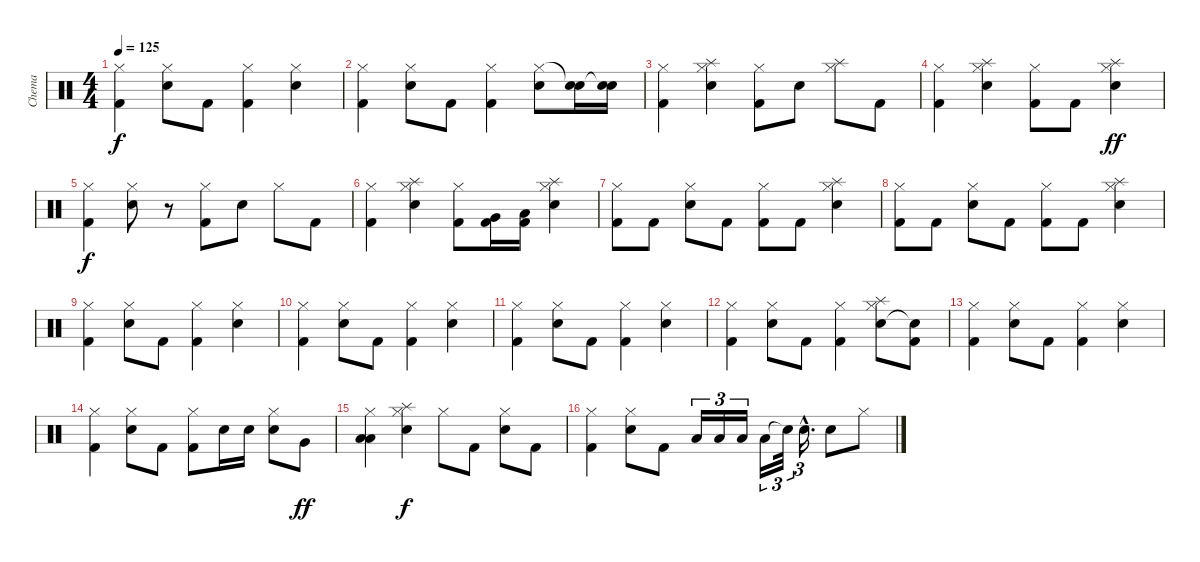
\track ("Chema" "Chema") {instrument percussion}
\staff {score}
\articulation defaults
\ts (4 4)
\tempo 125
\clef neutral
\ks c
("Hi-Hat (closed)" "Kick (hit) 2").4{dy f} ("Hi-Hat (closed)" "Snare (hit) 2").8 "Kick (hit) 2".8 ("Hi-Hat (closed)" "Kick (hit) 2").4 ("Hi-Hat (closed)" "Snare (hit) 2").4 |
("Hi-Hat (closed)" "Kick (hit) 2").4 ("Hi-Hat (closed)" "Snare (hit) 2").8 "Kick (hit) 2".8 ("Hi-Hat (closed)" "Kick (hit) 2").4 ("Hi-Hat (closed)" "Snare (hit) 2").8 ("Snare (hit)"{t} "Snare (hit) 2").16 ("Snare (hit)"{t} "Snare (hit) 2").16 |
("Hi-Hat (closed)" "Kick (hit) 2").4 ("Hi-Hat (closed)" "Snare (hit) 2" "Splash (hit)").4 ("Hi-Hat (closed)" "Kick (hit) 2").8 "Snare (hit) 2".8 ("Hi-Hat (closed)" "Splash (hit)").8 "Kick (hit) 2".8 |
("Hi-Hat (closed)" "Kick (hit) 2").4 ("Hi-Hat (closed)" "Snare (hit) 2" "Splash (hit)").4 ("Hi-Hat (closed)" "Kick (hit) 2").8 "Kick (hit) 2".8 ("Hi-Hat (closed)" "Snare (hit) 2" "Splash (hit)").4{dy ff} |
("Hi-Hat (closed)" "Kick (hit) 2").4{dy f} ("Hi-Hat (closed)" "Snare (hit) 2").8 r.8 ("Hi-Hat (closed)" "Kick (hit) 2").8 "Snare (hit) 2".8 "Hi-Hat (closed)".8 "Kick (hit) 2".8 |
("Hi-Hat (closed)" "Kick (hit) 2").4 ("Hi-Hat (closed)" "Snare (hit) 2" "Splash (hit)").4 ("Hi-Hat (closed)" "Kick (hit) 2").8 ("Kick (hit) 2" "Very Low Tom (hit)").16 ("Kick (hit) 2" "Low Tom (hit)").16 ("Hi-Hat (closed)" "Snare (hit) 2" "Splash (hit)").4 |
("Hi-Hat (closed)" "Kick (hit) 2").8 "Kick (hit) 2".8 ("Hi-Hat (closed)" "Snare (hit) 2").8 "Kick (hit) 2".8 ("Hi-Hat (closed)" "Kick (hit) 2").8 "Kick (hit) 2".8 ("Hi-Hat (closed)" "Snare (hit) 2" "Splash (hit)").4 |
("Hi-Hat (closed)" "Kick (hit) 2").8 "Kick (hit) 2".8 ("Hi-Hat (closed)" "Snare (hit) 2").8 "Kick (hit) 2".8 ("Hi-Hat (closed)" "Kick (hit) 2").8 "Kick (hit) 2".8 ("Hi-Hat (closed)" "Snare (hit) 2" "Splash (hit)").4 |
("Hi-Hat (closed)" "Kick (hit) 2").4 ("Hi-Hat (closed)" "Snare (hit) 2").8 "Kick (hit) 2".8 ("Hi-Hat (closed)" "Kick (hit) 2").4 ("Hi-Hat (closed)" "Snare (hit) 2").4 |
("Hi-Hat (closed)" "Kick (hit) 2").4 ("Hi-Hat (closed)" "Snare (hit) 2").8 "Kick (hit) 2".8 ("Hi-Hat (closed)" "Kick (hit) 2").4 ("Hi-Hat (closed)" "Snare (hit) 2").4 |
("Hi-Hat (closed)" "Kick (hit) 2").4 ("Hi-Hat (closed)" "Snare (hit) 2").8 "Kick (hit) 2".8 ("Hi-Hat (closed)" "Kick (hit) 2").4 ("Hi-Hat (closed)" "Snare (hit) 2").4 |
("Hi-Hat (closed)" "Kick (hit) 2").4 ("Hi-Hat (closed)" "Snare (hit) 2").8 "Kick (hit) 2".8 ("Hi-Hat (closed)" "Kick (hit) 2").4 ("Hi-Hat (closed)" "Snare (hit) 2" "Splash (hit)").8 ("Kick (hit) 2" "Snare (hit)"{t}).8 |
("Hi-Hat (closed)" "Kick (hit) 2").4 ("Hi-Hat (closed)" "Snare (hit) 2").8 "Kick (hit) 2".8 ("Hi-Hat (closed)" "Kick (hit) 2").4 ("Hi-Hat (closed)" "Snare (hit) 2").4 |
("Hi-Hat (closed)" "Kick (hit) 2").4 ("Hi-Hat (closed)" "Snare (hit) 2").8 "Kick (hit) 2".8 ("Hi-Hat (closed)" "Kick (hit) 2").8 "Snare (hit) 2".16 "Snare (hit) 2".16 ("Hi-Hat (closed)" "Snare (hit) 2").8 "Very Low Tom (hit)".8{dy ff} |
("Hi-Hat (closed)" "Low Floor Tom (hit)" "Low Tom (hit)").4 ("Hi-Hat (closed)" "Snare (hit) 2" "Splash (hit)").4{dy f} "Hi-Hat (closed)".8 "Kick (hit) 2".8 ("Hi-Hat (closed)" "Snare (hit) 2").8 "Kick (hit) 2".8 |
("Hi-Hat (closed)" "Kick (hit) 2").4 ("Hi-Hat (closed)" "Snare (hit) 2").8 "Kick (hit) 2".8 "Low Floor Tom (hit)".16{tu (3 2) bd 480} "Low Tom (hit)".16{tu (3 2) bu 480} "Low Tom (hit)".16{tu (3 2)} "Low Tom (hit)".16{tu (3 2)} "Snare (hit) 2"{t}.32{tu (3 2)} "Snare (hit) 2"{hac}.16{d tu (3 2)} "Snare (hit) 2".8 "Hi-Hat (closed)".8
